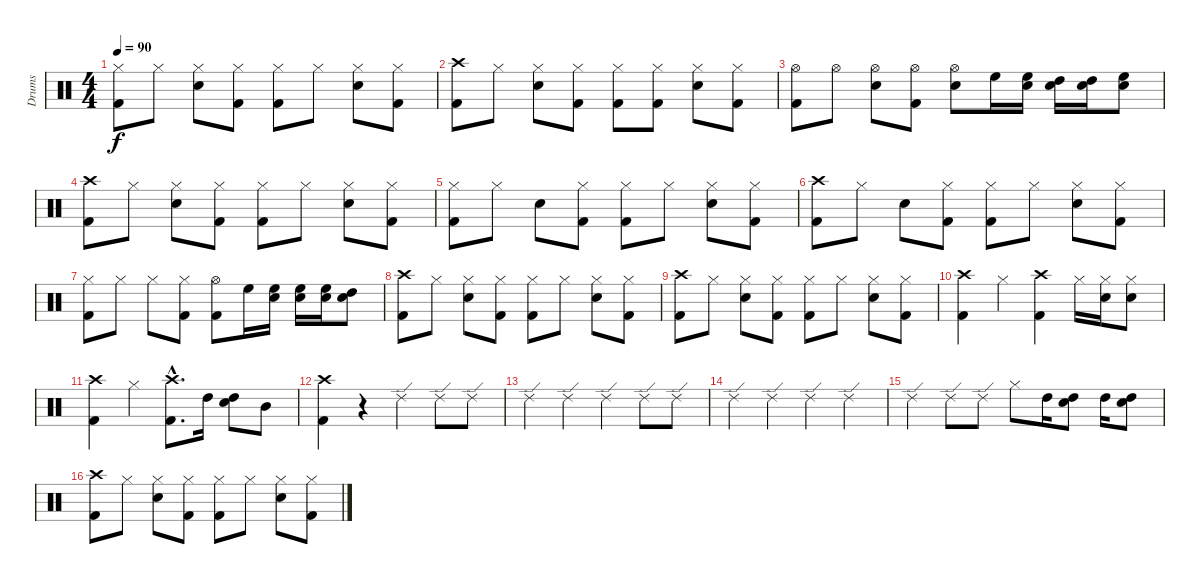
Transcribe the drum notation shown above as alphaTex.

\track ("Drums" "Drums") {instrument percussion}
\staff {score}
\articulation defaults
\ts (4 4)
\tempo 90
\clef neutral
\ks c
("Hi-Hat (closed)" "Kick (hit) 2").8{dy f} "Hi-Hat (closed)".8 ("Snare (hit) 2" "Hi-Hat (closed)").8 ("Hi-Hat (closed)" "Kick (hit) 2").8 ("Hi-Hat (closed)" "Kick (hit) 2").8 "Hi-Hat (closed)".8 ("Snare (hit) 2" "Hi-Hat (closed)").8 ("Hi-Hat (closed)" "Kick (hit) 2").8 |
("Crash high (hit)" "Kick (hit) 2").8 "Hi-Hat (closed)".8 ("Snare (hit) 2" "Hi-Hat (closed)").8 ("Hi-Hat (closed)" "Kick (hit) 2").8 ("Hi-Hat (closed)" "Kick (hit) 2").8 ("Hi-Hat (closed)" "Kick (hit) 2").8 ("Snare (hit) 2" "Hi-Hat (closed)").8 ("Hi-Hat (closed)" "Kick (hit) 2").8 |
("Hi-Hat (open)" "Kick (hit) 2").8 "Hi-Hat (open)".8 ("Snare (hit) 2" "Hi-Hat (open)").8 ("Hi-Hat (open)" "Kick (hit) 2").8 ("Snare (hit) 2" "Hi-Hat (open)").8 "High Floor Tom (hit)".16 ("Snare (hit)" "High Floor Tom (hit)").16 ("Snare (hit)" "High Tom (hit)").16 ("Snare (hit)" "High Tom (hit)").16 ("Snare (hit)" "High Floor Tom (hit)").8 |
("Crash high (hit)" "Kick (hit) 2").8 "Hi-Hat (closed)".8 ("Snare (hit) 2" "Hi-Hat (closed)").8 ("Hi-Hat (closed)" "Kick (hit) 2").8 ("Hi-Hat (closed)" "Kick (hit) 2").8 "Hi-Hat (closed)".8 ("Snare (hit) 2" "Hi-Hat (closed)").8 ("Hi-Hat (closed)" "Kick (hit) 2").8 |
("Hi-Hat (closed)" "Kick (hit) 2").8 "Hi-Hat (closed)".8 "Snare (hit) 2".8 ("Hi-Hat (closed)" "Kick (hit) 2").8 ("Hi-Hat (closed)" "Kick (hit) 2").8 "Hi-Hat (closed)".8 ("Snare (hit) 2" "Hi-Hat (closed)").8 ("Hi-Hat (closed)" "Kick (hit) 2").8 |
("Crash high (hit)" "Kick (hit) 2").8 "Hi-Hat (closed)".8 "Snare (hit) 2".8 ("Hi-Hat (closed)" "Kick (hit) 2").8 ("Hi-Hat (closed)" "Kick (hit) 2").8 "Hi-Hat (closed)".8 ("Snare (hit) 2" "Hi-Hat (closed)").8 ("Hi-Hat (closed)" "Kick (hit) 2").8 |
("Hi-Hat (closed)" "Kick (hit) 2").8 "Hi-Hat (closed)".8 "Hi-Hat (closed)".8 ("Hi-Hat (closed)" "Kick (hit) 2").8 ("Hi-Hat (open)" "Kick (hit) 2").8 "High Floor Tom (hit)".16 ("Snare (hit)" "High Floor Tom (hit)").16 ("Snare (hit)" "High Floor Tom (hit)").16 ("Snare (hit)" "High Floor Tom (hit)").16 ("Snare (hit)" "High Tom (hit)").8 |
("Crash high (hit)" "Kick (hit) 2").8 "Hi-Hat (closed)".8 ("Snare (hit) 2" "Hi-Hat (closed)").8 ("Hi-Hat (closed)" "Kick (hit) 2").8 ("Hi-Hat (closed)" "Kick (hit) 2").8 "Hi-Hat (closed)".8 ("Snare (hit) 2" "Hi-Hat (closed)").8 ("Hi-Hat (closed)" "Kick (hit) 2").8 |
("Crash high (hit)" "Kick (hit) 2").8 "Hi-Hat (closed)".8 ("Snare (hit) 2" "Hi-Hat (closed)").8 ("Hi-Hat (closed)" "Kick (hit) 2").8 ("Hi-Hat (closed)" "Kick (hit) 2").8 "Hi-Hat (closed)".8 ("Snare (hit) 2" "Hi-Hat (closed)").8 ("Hi-Hat (closed)" "Kick (hit) 2").8 |
("Crash high (hit)" "Kick (hit) 2").4 "Hi-Hat (closed)".4 ("Crash high (hit)" "Kick (hit) 2").4 "Hi-Hat (closed)".16 ("Snare (hit)" "Hi-Hat (closed)").16 ("Snare (hit)" "Hi-Hat (closed)").8 |
("Crash high (hit)" "Kick (hit) 2").4 "Hi-Hat (closed)".4 ("Crash high (hit)"{hac} "Kick (hit) 2"{hac}).8{d} "High Tom (hit)".16 ("Snare (hit)" "High Tom (hit)").8 "Mid Tom (hit)".8 |
("Crash high (hit)" "Kick (hit) 2").4 r.4 "Ride (edge) 2".4 "Ride (edge) 2".8 "Ride (edge) 2".8 |
"Ride (edge) 2".4 "Ride (edge) 2".4 "Ride (edge) 2".4 "Ride (edge) 2".8 "Ride (edge) 2".8 |
"Ride (edge) 2".4 "Ride (edge) 2".4 "Ride (edge) 2".4 "Ride (edge) 2".4 |
"Ride (edge) 2".4 "Ride (edge) 2".8 "Ride (edge) 2".8 "Hi-Hat (closed)".8 "High Tom (hit)".16 ("Snare (hit)" "High Tom (hit)").8 "High Tom (hit)".16 ("Snare (hit)" "High Tom (hit)").8 |
("Crash high (hit)" "Kick (hit) 2").8 "Hi-Hat (closed)".8 ("Snare (hit) 2" "Hi-Hat (closed)").8 ("Hi-Hat (closed)" "Kick (hit) 2").8 ("Hi-Hat (closed)" "Kick (hit) 2").8 "Hi-Hat (closed)".8 ("Snare (hit) 2" "Hi-Hat (closed)").8 ("Hi-Hat (closed)" "Kick (hit) 2").8
